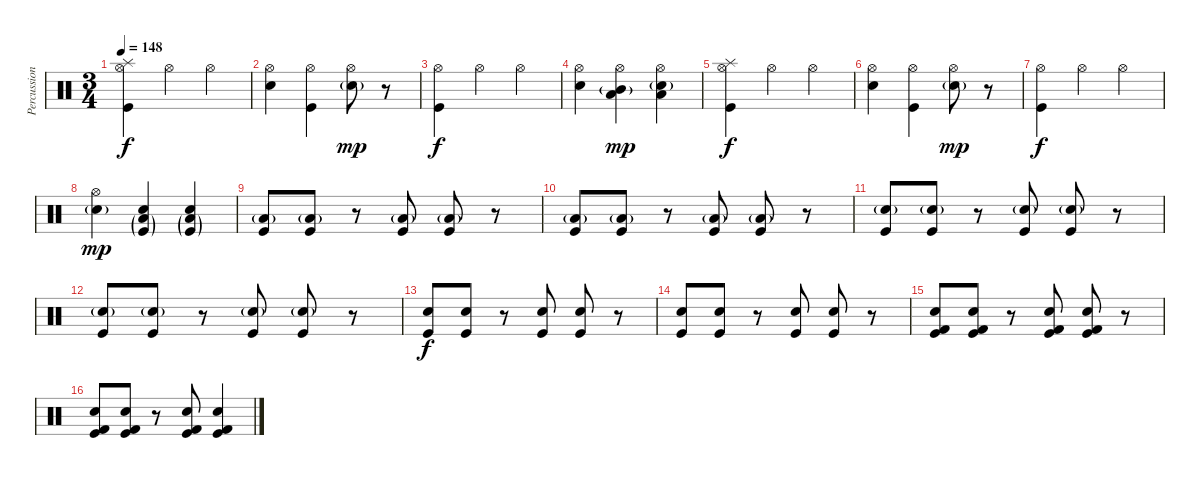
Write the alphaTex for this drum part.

\track ("Percussion" "Percussion") {instrument percussion}
\staff {score}
\articulation defaults
\ts (3 4)
\tempo 148
\clef neutral
\ks c
("Hi-Hat (open)" "Splash (hit)" "Kick (hit)").4{dy f} "Hi-Hat (open)".4 "Hi-Hat (open)".4 |
("Hi-Hat (open)" "Snare (hit) 2").4 ("Hi-Hat (open)" "Kick (hit)").4 ("Hi-Hat (open)" "Snare (hit) 2"{g}).8{dy mp} r.8 |
("Hi-Hat (open)" "Kick (hit)").4{dy f} "Hi-Hat (open)".4 "Hi-Hat (open)".4 |
("Hi-Hat (open)" "Snare (hit) 2").4 ("Hi-Hat (open)" "Mid Tom (hit)"{g} "Low Tom (hit)").4{dy mp} ("Hi-Hat (open)" "Snare (hit) 2"{g} "Low Floor Tom (hit)").4 |
("Hi-Hat (open)" "Splash (hit)" "Kick (hit)").4{dy f} "Hi-Hat (open)".4 "Hi-Hat (open)".4 |
("Hi-Hat (open)" "Snare (hit) 2").4 ("Hi-Hat (open)" "Kick (hit)").4 ("Hi-Hat (open)" "Snare (hit) 2"{g}).8{dy mp} r.8 |
("Hi-Hat (open)" "Kick (hit)").4{dy f} "Hi-Hat (open)".4 "Hi-Hat (open)".4 |
("Hi-Hat (open)" "Snare (hit) 2"{g}).4{dy mp} ("Snare (hit) 2" "Low Tom (hit)"{g} "Kick (hit)"{g}).4 ("Snare (hit) 2" "Low Tom (hit)"{g} "Kick (hit)"{g}).4 |
("Low Floor Tom (hit)"{g} "Kick (hit)").8 ("Low Floor Tom (hit)"{g} "Kick (hit)").8 r.8 ("Low Floor Tom (hit)"{g} "Kick (hit)").8 ("Low Floor Tom (hit)"{g} "Kick (hit)").8 r.8 |
("Low Floor Tom (hit)"{g} "Kick (hit)").8 ("Low Floor Tom (hit)"{g} "Kick (hit)").8 r.8 ("Low Floor Tom (hit)"{g} "Kick (hit)").8 ("Low Floor Tom (hit)"{g} "Kick (hit)").8 r.8 |
("Snare (hit) 2"{g} "Kick (hit)").8 ("Snare (hit) 2"{g} "Kick (hit)").8 r.8 ("Snare (hit) 2"{g} "Kick (hit)").8 ("Snare (hit) 2"{g} "Kick (hit)").8 r.8 |
("Snare (hit) 2"{g} "Kick (hit)").8 ("Snare (hit) 2"{g} "Kick (hit)").8 r.8 ("Snare (hit) 2"{g} "Kick (hit)").8 ("Snare (hit) 2"{g} "Kick (hit)").8 r.8 |
("Snare (hit) 2" "Kick (hit)").8{dy f} ("Snare (hit) 2" "Kick (hit)").8 r.8 ("Snare (hit) 2" "Kick (hit)").8 ("Snare (hit) 2" "Kick (hit)").8 r.8 |
("Snare (hit) 2" "Kick (hit)").8 ("Snare (hit) 2" "Kick (hit)").8 r.8 ("Snare (hit) 2" "Kick (hit)").8 ("Snare (hit) 2" "Kick (hit)").8 r.8 |
("Electric Snare (hit)" "Kick (hit) 2" "Kick (hit)").8 ("Electric Snare (hit)" "Kick (hit) 2" "Kick (hit)").8 r.8 ("Electric Snare (hit)" "Kick (hit) 2" "Kick (hit)").8 ("Electric Snare (hit)" "Kick (hit) 2" "Kick (hit)").8 r.8 |
("Electric Snare (hit)" "Kick (hit) 2" "Kick (hit)").8 ("Electric Snare (hit)" "Kick (hit) 2" "Kick (hit)").8 r.8 ("Electric Snare (hit)" "Kick (hit) 2" "Kick (hit)").8 ("Electric Snare (hit)" "Kick (hit) 2" "Kick (hit)").4
